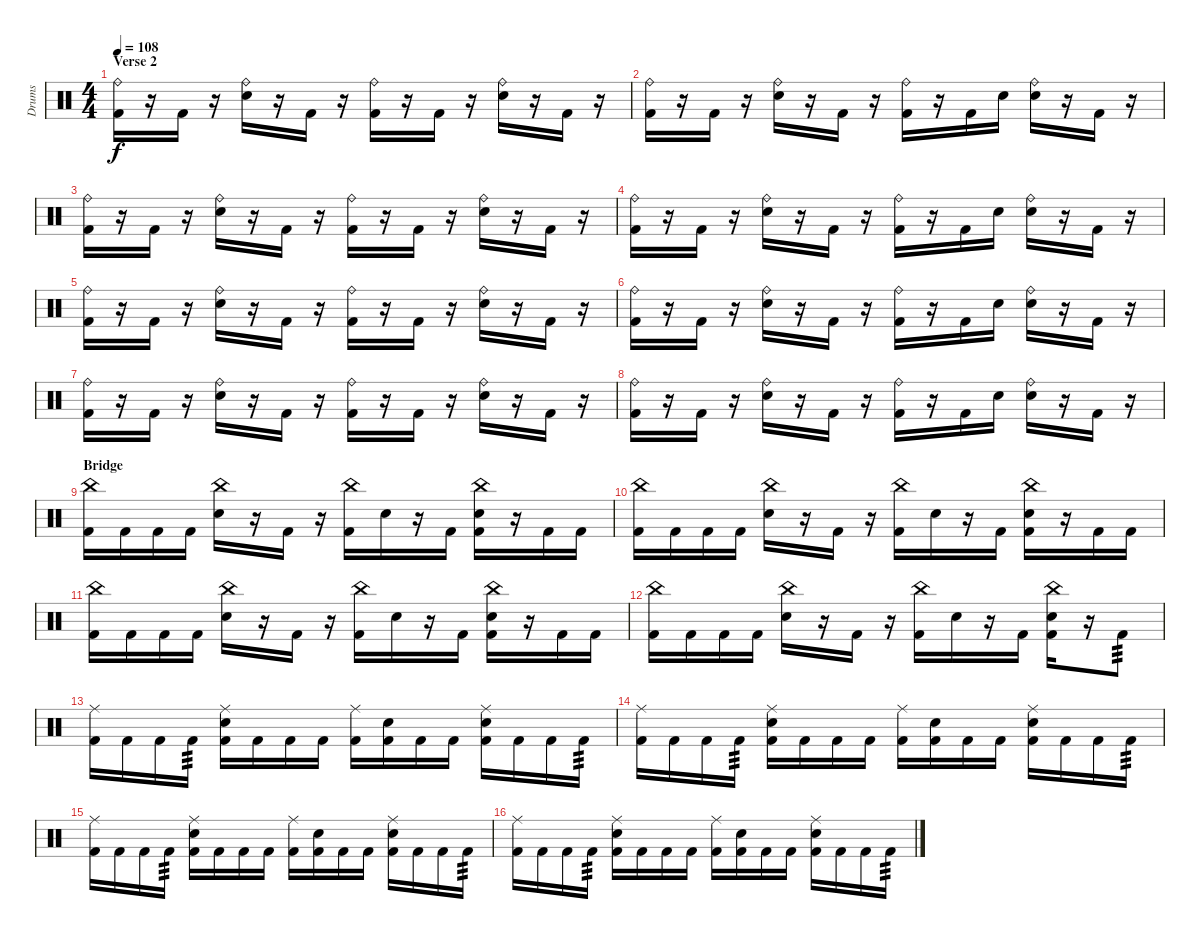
\track ("Drums" "Drums") {instrument percussion}
\staff {score}
\articulation defaults
\ts (4 4)
\section ("" "Verse 2")
\tempo 108
\clef neutral
\ks c
("Ride (bell)" "Kick (hit) 2").16{dy f} r.16 "Kick (hit) 2".16 r.16 ("Ride (bell)" "Electric Snare (hit)").16 r.16 "Kick (hit) 2".16 r.16 ("Ride (bell)" "Kick (hit) 2").16 r.16 "Kick (hit) 2".16 r.16 ("Ride (bell)" "Electric Snare (hit)").16 r.16 "Kick (hit) 2".16 r.16 |
("Ride (bell)" "Kick (hit) 2").16 r.16 "Kick (hit) 2".16 r.16 ("Ride (bell)" "Electric Snare (hit)").16 r.16 "Kick (hit) 2".16 r.16 ("Ride (bell)" "Kick (hit) 2").16 r.16 "Kick (hit) 2".16 "Electric Snare (hit)".16 ("Ride (bell)" "Electric Snare (hit)").16 r.16 "Kick (hit) 2".16 r.16 |
("Ride (bell)" "Kick (hit) 2").16 r.16 "Kick (hit) 2".16 r.16 ("Ride (bell)" "Electric Snare (hit)").16 r.16 "Kick (hit) 2".16 r.16 ("Ride (bell)" "Kick (hit) 2").16 r.16 "Kick (hit) 2".16 r.16 ("Ride (bell)" "Electric Snare (hit)").16 r.16 "Kick (hit) 2".16 r.16 |
("Ride (bell)" "Kick (hit) 2").16 r.16 "Kick (hit) 2".16 r.16 ("Ride (bell)" "Electric Snare (hit)").16 r.16 "Kick (hit) 2".16 r.16 ("Ride (bell)" "Kick (hit) 2").16 r.16 "Kick (hit) 2".16 "Electric Snare (hit)".16 ("Ride (bell)" "Electric Snare (hit)").16 r.16 "Kick (hit) 2".16 r.16 |
("Ride (bell)" "Kick (hit) 2").16 r.16 "Kick (hit) 2".16 r.16 ("Ride (bell)" "Electric Snare (hit)").16 r.16 "Kick (hit) 2".16 r.16 ("Ride (bell)" "Kick (hit) 2").16 r.16 "Kick (hit) 2".16 r.16 ("Ride (bell)" "Electric Snare (hit)").16 r.16 "Kick (hit) 2".16 r.16 |
("Ride (bell)" "Kick (hit) 2").16 r.16 "Kick (hit) 2".16 r.16 ("Ride (bell)" "Electric Snare (hit)").16 r.16 "Kick (hit) 2".16 r.16 ("Ride (bell)" "Kick (hit) 2").16 r.16 "Kick (hit) 2".16 "Electric Snare (hit)".16 ("Ride (bell)" "Electric Snare (hit)").16 r.16 "Kick (hit) 2".16 r.16 |
("Ride (bell)" "Kick (hit) 2").16 r.16 "Kick (hit) 2".16 r.16 ("Ride (bell)" "Electric Snare (hit)").16 r.16 "Kick (hit) 2".16 r.16 ("Ride (bell)" "Kick (hit) 2").16 r.16 "Kick (hit) 2".16 r.16 ("Ride (bell)" "Electric Snare (hit)").16 r.16 "Kick (hit) 2".16 r.16 |
("Ride (bell)" "Kick (hit) 2").16 r.16 "Kick (hit) 2".16 r.16 ("Ride (bell)" "Electric Snare (hit)").16 r.16 "Kick (hit) 2".16 r.16 ("Ride (bell)" "Kick (hit) 2").16 r.16 "Kick (hit) 2".16 "Electric Snare (hit)".16 ("Ride (bell)" "Electric Snare (hit)").16 r.16 "Kick (hit) 2".16 r.16 |
\section ("" "Bridge")
("China (hit)" "Kick (hit) 2").16 "Kick (hit) 2".16 "Kick (hit) 2".16 "Kick (hit) 2".16 ("China (hit)" "Electric Snare (hit)").16 r.16 "Kick (hit) 2".16 r.16 ("China (hit)" "Kick (hit) 2").16 "Electric Snare (hit)".16 r.16 "Kick (hit) 2".16 ("China (hit)" "Electric Snare (hit)" "Kick (hit) 2").16 r.16 "Kick (hit) 2".16 "Kick (hit) 2".16 |
("China (hit)" "Kick (hit) 2").16 "Kick (hit) 2".16 "Kick (hit) 2".16 "Kick (hit) 2".16 ("China (hit)" "Electric Snare (hit)").16 r.16 "Kick (hit) 2".16 r.16 ("China (hit)" "Kick (hit) 2").16 "Electric Snare (hit)".16 r.16 "Kick (hit) 2".16 ("China (hit)" "Electric Snare (hit)" "Kick (hit) 2").16 r.16 "Kick (hit) 2".16 "Kick (hit) 2".16 |
("China (hit)" "Kick (hit) 2").16 "Kick (hit) 2".16 "Kick (hit) 2".16 "Kick (hit) 2".16 ("China (hit)" "Electric Snare (hit)").16 r.16 "Kick (hit) 2".16 r.16 ("China (hit)" "Kick (hit) 2").16 "Electric Snare (hit)".16 r.16 "Kick (hit) 2".16 ("China (hit)" "Electric Snare (hit)" "Kick (hit) 2").16 r.16 "Kick (hit) 2".16 "Kick (hit) 2".16 |
("China (hit)" "Kick (hit) 2").16 "Kick (hit) 2".16 "Kick (hit) 2".16 "Kick (hit) 2".16 ("China (hit)" "Electric Snare (hit)").16 r.16 "Kick (hit) 2".16 r.16 ("China (hit)" "Kick (hit) 2").16 "Electric Snare (hit)".16 r.16 "Kick (hit) 2".16 ("China (hit)" "Electric Snare (hit)" "Kick (hit) 2").16 r.16 "Kick (hit) 2".8{tp 3} |
("Ride (middle)" "Kick (hit) 2").16 "Kick (hit) 2".16 "Kick (hit) 2".16 "Kick (hit) 2".16{tp 3} ("Ride (middle)" "Electric Snare (hit)" "Kick (hit) 2").16 "Kick (hit) 2".16 "Kick (hit) 2".16 "Kick (hit) 2".16 ("Ride (middle)" "Kick (hit) 2").16 ("Electric Snare (hit)" "Kick (hit) 2").16 "Kick (hit) 2".16 "Kick (hit) 2".16 ("Ride (middle)" "Electric Snare (hit)" "Kick (hit) 2").16 "Kick (hit) 2".16 "Kick (hit) 2".16 "Kick (hit) 2".16{tp 3} |
("Ride (middle)" "Kick (hit) 2").16 "Kick (hit) 2".16 "Kick (hit) 2".16 "Kick (hit) 2".16{tp 3} ("Ride (middle)" "Electric Snare (hit)" "Kick (hit) 2").16 "Kick (hit) 2".16 "Kick (hit) 2".16 "Kick (hit) 2".16 ("Ride (middle)" "Kick (hit) 2").16 ("Electric Snare (hit)" "Kick (hit) 2").16 "Kick (hit) 2".16 "Kick (hit) 2".16 ("Ride (middle)" "Electric Snare (hit)" "Kick (hit) 2").16 "Kick (hit) 2".16 "Kick (hit) 2".16 "Kick (hit) 2".16{tp 3} |
("Ride (middle)" "Kick (hit) 2").16 "Kick (hit) 2".16 "Kick (hit) 2".16 "Kick (hit) 2".16{tp 3} ("Ride (middle)" "Electric Snare (hit)" "Kick (hit) 2").16 "Kick (hit) 2".16 "Kick (hit) 2".16 "Kick (hit) 2".16 ("Ride (middle)" "Kick (hit) 2").16 ("Electric Snare (hit)" "Kick (hit) 2").16 "Kick (hit) 2".16 "Kick (hit) 2".16 ("Ride (middle)" "Electric Snare (hit)" "Kick (hit) 2").16 "Kick (hit) 2".16 "Kick (hit) 2".16 "Kick (hit) 2".16{tp 3} |
("Ride (middle)" "Kick (hit) 2").16 "Kick (hit) 2".16 "Kick (hit) 2".16 "Kick (hit) 2".16{tp 3} ("Ride (middle)" "Electric Snare (hit)" "Kick (hit) 2").16 "Kick (hit) 2".16 "Kick (hit) 2".16 "Kick (hit) 2".16 ("Ride (middle)" "Kick (hit) 2").16 ("Electric Snare (hit)" "Kick (hit) 2").16 "Kick (hit) 2".16 "Kick (hit) 2".16 ("Ride (middle)" "Electric Snare (hit)" "Kick (hit) 2").16 "Kick (hit) 2".16 "Kick (hit) 2".16 "Kick (hit) 2".16{tp 3}
